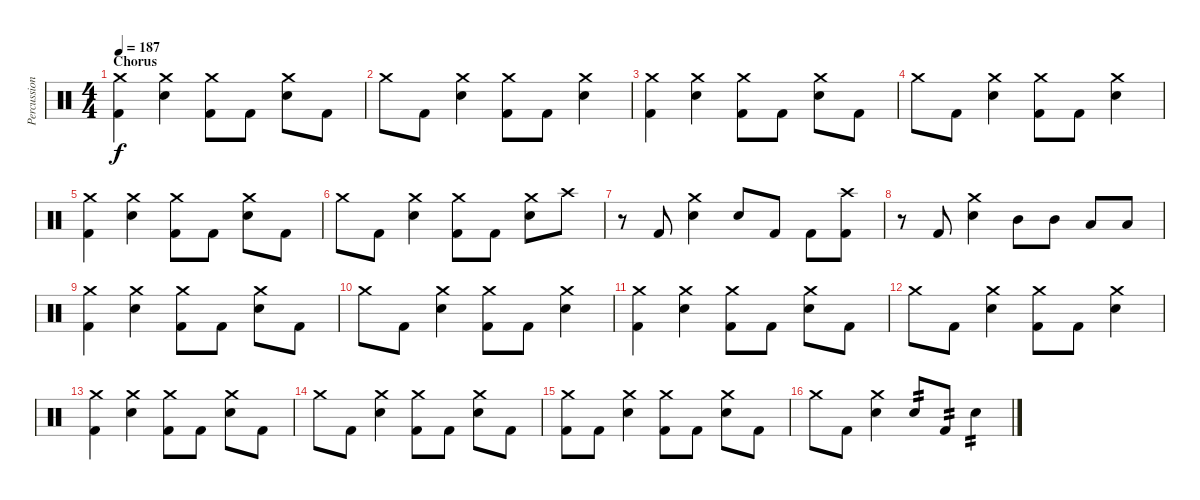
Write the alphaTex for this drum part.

\track ("Percussion" "Percussion") {instrument percussion}
\staff {score}
\articulation defaults
\ts (4 4)
\section ("" "Chorus")
\tempo 187
\clef neutral
\ks c
("Crash medium (hit)" "Kick (hit) 2").4{dy f} ("Crash medium (hit)" "Electric Snare (hit)").4 ("Crash medium (hit)" "Kick (hit) 2").8 "Kick (hit) 2".8 ("Crash medium (hit)" "Electric Snare (hit)").8 "Kick (hit) 2".8 |
"Crash medium (hit)".8 "Kick (hit) 2".8 ("Crash medium (hit)" "Electric Snare (hit)").4 ("Crash medium (hit)" "Kick (hit) 2").8 "Kick (hit) 2".8 ("Crash medium (hit)" "Electric Snare (hit)").4 |
("Crash medium (hit)" "Kick (hit) 2").4 ("Crash medium (hit)" "Electric Snare (hit)").4 ("Crash medium (hit)" "Kick (hit) 2").8 "Kick (hit) 2".8 ("Crash medium (hit)" "Electric Snare (hit)").8 "Kick (hit) 2".8 |
"Crash medium (hit)".8 "Kick (hit) 2".8 ("Crash medium (hit)" "Electric Snare (hit)").4 ("Crash medium (hit)" "Kick (hit) 2").8 "Kick (hit) 2".8 ("Crash medium (hit)" "Electric Snare (hit)").4 |
("Crash medium (hit)" "Kick (hit) 2").4 ("Crash medium (hit)" "Electric Snare (hit)").4 ("Crash medium (hit)" "Kick (hit) 2").8 "Kick (hit) 2".8 ("Crash medium (hit)" "Electric Snare (hit)").8 "Kick (hit) 2".8 |
"Crash medium (hit)".8 "Kick (hit) 2".8 ("Crash medium (hit)" "Electric Snare (hit)").4 ("Crash medium (hit)" "Kick (hit) 2").8 "Kick (hit) 2".8 ("Crash medium (hit)" "Electric Snare (hit)").8 "Crash high (hit)".8 |
r.8 "Kick (hit) 2".8 ("Crash medium (hit)" "Electric Snare (hit)").4 "Electric Snare (hit)".8 "Kick (hit) 2".8 "Kick (hit) 2".8 ("Crash high (hit)" "Kick (hit) 2").8 |
r.8 "Kick (hit) 2".8 ("Crash medium (hit)" "Electric Snare (hit)").4 "Mid Tom (hit)".8 "Mid Tom (hit)".8 "Low Tom (hit)".8 "Low Tom (hit)".8 |
("Crash medium (hit)" "Kick (hit) 2").4 ("Crash medium (hit)" "Electric Snare (hit)").4 ("Crash medium (hit)" "Kick (hit) 2").8 "Kick (hit) 2".8 ("Crash medium (hit)" "Electric Snare (hit)").8 "Kick (hit) 2".8 |
"Crash medium (hit)".8 "Kick (hit) 2".8 ("Crash medium (hit)" "Electric Snare (hit)").4 ("Crash medium (hit)" "Kick (hit) 2").8 "Kick (hit) 2".8 ("Crash medium (hit)" "Electric Snare (hit)").4 |
("Crash medium (hit)" "Kick (hit) 2").4 ("Crash medium (hit)" "Electric Snare (hit)").4 ("Crash medium (hit)" "Kick (hit) 2").8 "Kick (hit) 2".8 ("Crash medium (hit)" "Electric Snare (hit)").8 "Kick (hit) 2".8 |
"Crash medium (hit)".8 "Kick (hit) 2".8 ("Crash medium (hit)" "Electric Snare (hit)").4 ("Crash medium (hit)" "Kick (hit) 2").8 "Kick (hit) 2".8 ("Crash medium (hit)" "Electric Snare (hit)").4 |
("Crash medium (hit)" "Kick (hit) 2").4 ("Crash medium (hit)" "Electric Snare (hit)").4 ("Crash medium (hit)" "Kick (hit) 2").8 "Kick (hit) 2".8 ("Crash medium (hit)" "Electric Snare (hit)").8 "Kick (hit) 2".8 |
"Crash medium (hit)".8 "Kick (hit) 2".8 ("Crash medium (hit)" "Electric Snare (hit)").4 ("Crash medium (hit)" "Kick (hit) 2").8 "Kick (hit) 2".8 ("Crash medium (hit)" "Electric Snare (hit)").8 "Kick (hit) 2".8 |
("Crash medium (hit)" "Kick (hit) 2").8 "Kick (hit) 2".8 ("Crash medium (hit)" "Electric Snare (hit)").4 ("Crash medium (hit)" "Kick (hit) 2").8 "Kick (hit) 2".8 ("Crash medium (hit)" "Electric Snare (hit)").8 "Kick (hit) 2".8 |
"Crash medium (hit)".8 "Kick (hit) 2".8 ("Crash medium (hit)" "Electric Snare (hit)").4 "Electric Snare (hit)".8{tp 2} "Kick (hit) 2".8{tp 2} "Electric Snare (hit)".4{tp 2}
